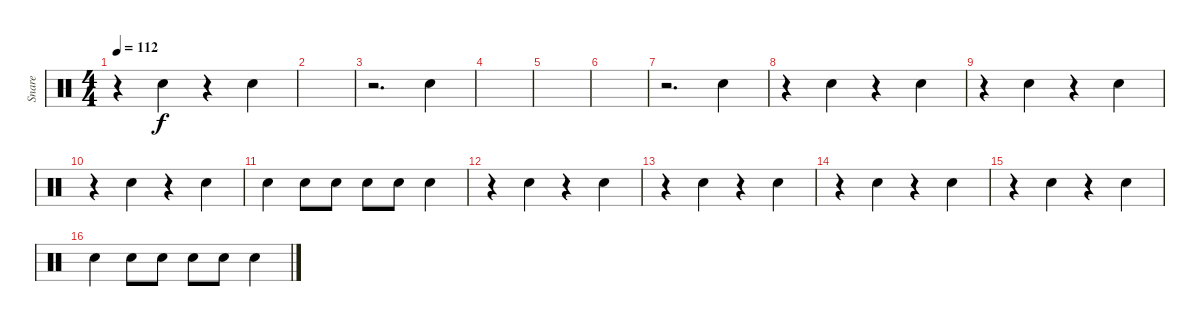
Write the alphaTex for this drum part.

\track ("Snare" "Snare") {instrument percussion}
\staff {score}
\articulation defaults
\ts (4 4)
\tempo 112
\clef neutral
\ks c
r.4{dy f} "Snare (hit) 2".4 r.4 "Snare (hit) 2".4 |
|
r.2{d} "Snare (hit) 2".4 |
|
|
|
r.2{d} "Snare (hit) 2".4 |
r.4 "Snare (hit) 2".4 r.4 "Snare (hit) 2".4 |
r.4 "Snare (hit) 2".4 r.4 "Snare (hit) 2".4 |
r.4 "Snare (hit) 2".4 r.4 "Snare (hit) 2".4 |
"Snare (hit) 2".4 "Snare (hit) 2".8 "Snare (hit) 2".8 "Snare (hit) 2".8 "Snare (hit) 2".8 "Snare (hit) 2".4 |
r.4 "Snare (hit) 2".4 r.4 "Snare (hit) 2".4 |
r.4 "Snare (hit) 2".4 r.4 "Snare (hit) 2".4 |
r.4 "Snare (hit) 2".4 r.4 "Snare (hit) 2".4 |
r.4 "Snare (hit) 2".4 r.4 "Snare (hit) 2".4 |
"Snare (hit) 2".4 "Snare (hit) 2".8 "Snare (hit) 2".8 "Snare (hit) 2".8 "Snare (hit) 2".8 "Snare (hit) 2".4
